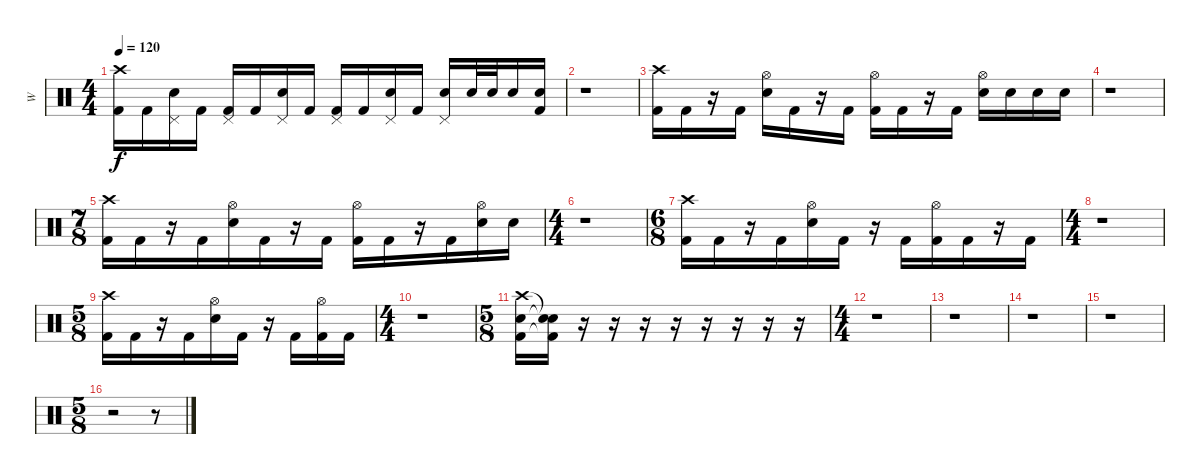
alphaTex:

\track ("W" "W") {instrument percussion}
\staff {score}
\articulation defaults
\ts (4 4)
\tempo 120
\clef neutral
\ks c
("Crash high (hit)" "Kick (hit) 2").16{dy f} "Kick (hit) 2".16 ("Pedal Hi-Hat (hit)" "Electric Snare (hit)").16 "Kick (hit) 2".16 ("Pedal Hi-Hat (hit)" "Kick (hit) 2").16 "Kick (hit) 2".16 ("Pedal Hi-Hat (hit)" "Electric Snare (hit)").16 "Kick (hit) 2".16 ("Pedal Hi-Hat (hit)" "Kick (hit) 2").16 "Kick (hit) 2".16 ("Pedal Hi-Hat (hit)" "Electric Snare (hit)").16 "Kick (hit) 2".16 ("Pedal Hi-Hat (hit)" "Electric Snare (hit)").16 "Electric Snare (hit)".32 "Electric Snare (hit)".32 "Electric Snare (hit)".16 ("Electric Snare (hit)" "Kick (hit) 2").16 |
r.1 |
("Crash high (hit)" "Kick (hit) 2").16 "Kick (hit) 2".16 r.16 "Kick (hit) 2".16 ("Hi-Hat (open)" "Electric Snare (hit)").16 "Kick (hit) 2".16 r.16 "Kick (hit) 2".16 ("Hi-Hat (open)" "Kick (hit) 2").16 "Kick (hit) 2".16 r.16 "Kick (hit) 2".16 ("Hi-Hat (open)" "Electric Snare (hit)").16 "Electric Snare (hit)".16 "Electric Snare (hit)".16 "Electric Snare (hit)".16 |
r.1 |
\ts (7 8)
("Crash high (hit)" "Kick (hit) 2").16 "Kick (hit) 2".16 r.16 "Kick (hit) 2".16 ("Hi-Hat (open)" "Electric Snare (hit)").16 "Kick (hit) 2".16 r.16 "Kick (hit) 2".16 ("Hi-Hat (open)" "Kick (hit) 2").16 "Kick (hit) 2".16 r.16 "Kick (hit) 2".16 ("Hi-Hat (open)" "Electric Snare (hit)").16 "Electric Snare (hit)".16 |
\ts (4 4)
r.1 |
\ts (6 8)
("Crash high (hit)" "Kick (hit) 2").16 "Kick (hit) 2".16 r.16 "Kick (hit) 2".16 ("Hi-Hat (open)" "Electric Snare (hit)").16 "Kick (hit) 2".16 r.16 "Kick (hit) 2".16 ("Hi-Hat (open)" "Kick (hit) 2").16 "Kick (hit) 2".16 r.16 "Kick (hit) 2".16 |
\ts (4 4)
r.1 |
\ts (5 8)
("Crash high (hit)" "Kick (hit) 2").16 "Kick (hit) 2".16 r.16 "Kick (hit) 2".16 ("Hi-Hat (open)" "Electric Snare (hit)").16 "Kick (hit) 2".16 r.16 "Kick (hit) 2".16 ("Hi-Hat (open)" "Kick (hit) 2").16 "Kick (hit) 2".16 |
\ts (4 4)
r.1 |
\ts (5 8)
("Crash high (hit)" "Electric Snare (hit)" "Kick (hit) 2").16 ("Snare (hit)"{t} "Snare (hit)"{t} "Kick (hit) 2"{t}).16 r.16 r.16 r.16 r.16 r.16 r.16 r.16 r.16 |
\ts (4 4)
r.1 |
r.1 |
r.1 |
r.1 |
\ts (5 8)
r.2 r.8
